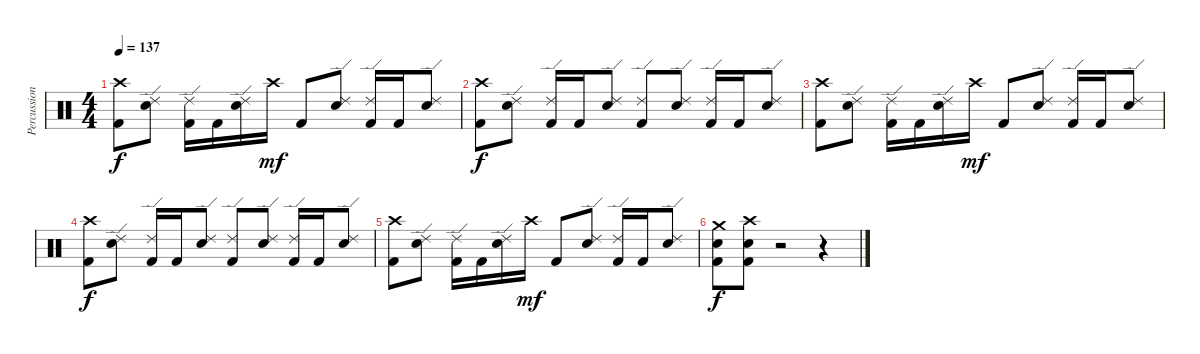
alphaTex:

\track ("Percussion" "Percussion") {instrument percussion}
\staff {score}
\articulation defaults
\ts (4 4)
\tempo 137
\clef neutral
\ks c
("Crash high (hit)" "Kick (hit) 2").8{dy f} ("Ride (edge) 2" "Electric Snare (hit)").8 ("Ride (edge) 2" "Kick (hit) 2").16 "Kick (hit) 2".16 ("Ride (edge) 2" "Electric Snare (hit)").16 "Crash high (hit)".16{dy mf} "Kick (hit) 2".8 ("Ride (edge) 2" "Electric Snare (hit)").8 ("Ride (edge) 2" "Kick (hit) 2").16 "Kick (hit) 2".16 ("Ride (edge) 2" "Electric Snare (hit)").8 |
("Crash high (hit)" "Kick (hit) 2").8{dy f} ("Ride (edge) 2" "Electric Snare (hit)").8 ("Ride (edge) 2" "Kick (hit) 2").16 "Kick (hit) 2".16 ("Ride (edge) 2" "Electric Snare (hit)").8 ("Ride (edge) 2" "Kick (hit) 2").8 ("Ride (edge) 2" "Electric Snare (hit)").8 ("Ride (edge) 2" "Kick (hit) 2").16 "Kick (hit) 2".16 ("Ride (edge) 2" "Electric Snare (hit)").8 |
("Crash high (hit)" "Kick (hit) 2").8 ("Ride (edge) 2" "Electric Snare (hit)").8 ("Ride (edge) 2" "Kick (hit) 2").16 "Kick (hit) 2".16 ("Ride (edge) 2" "Electric Snare (hit)").16 "Crash high (hit)".16{dy mf} "Kick (hit) 2".8 ("Ride (edge) 2" "Electric Snare (hit)").8 ("Ride (edge) 2" "Kick (hit) 2").16 "Kick (hit) 2".16 ("Ride (edge) 2" "Electric Snare (hit)").8 |
("Crash high (hit)" "Kick (hit) 2").8{dy f} ("Ride (edge) 2" "Electric Snare (hit)").8 ("Ride (edge) 2" "Kick (hit) 2").16 "Kick (hit) 2".16 ("Ride (edge) 2" "Electric Snare (hit)").8 ("Ride (edge) 2" "Kick (hit) 2").8 ("Ride (edge) 2" "Electric Snare (hit)").8 ("Ride (edge) 2" "Kick (hit) 2").16 "Kick (hit) 2".16 ("Ride (edge) 2" "Electric Snare (hit)").8 |
("Crash high (hit)" "Kick (hit) 2").8 ("Ride (edge) 2" "Electric Snare (hit)").8 ("Ride (edge) 2" "Kick (hit) 2").16 "Kick (hit) 2".16 ("Ride (edge) 2" "Electric Snare (hit)").16 "Crash high (hit)".16{dy mf} "Kick (hit) 2".8 ("Ride (edge) 2" "Electric Snare (hit)").8 ("Ride (edge) 2" "Kick (hit) 2").16 "Kick (hit) 2".16 ("Ride (edge) 2" "Electric Snare (hit)").8 |
("Crash medium (hit)" "Electric Snare (hit)" "Kick (hit) 2").8{dy f} ("Crash high (hit)" "Electric Snare (hit)" "Kick (hit) 2").8 r.2 r.4
